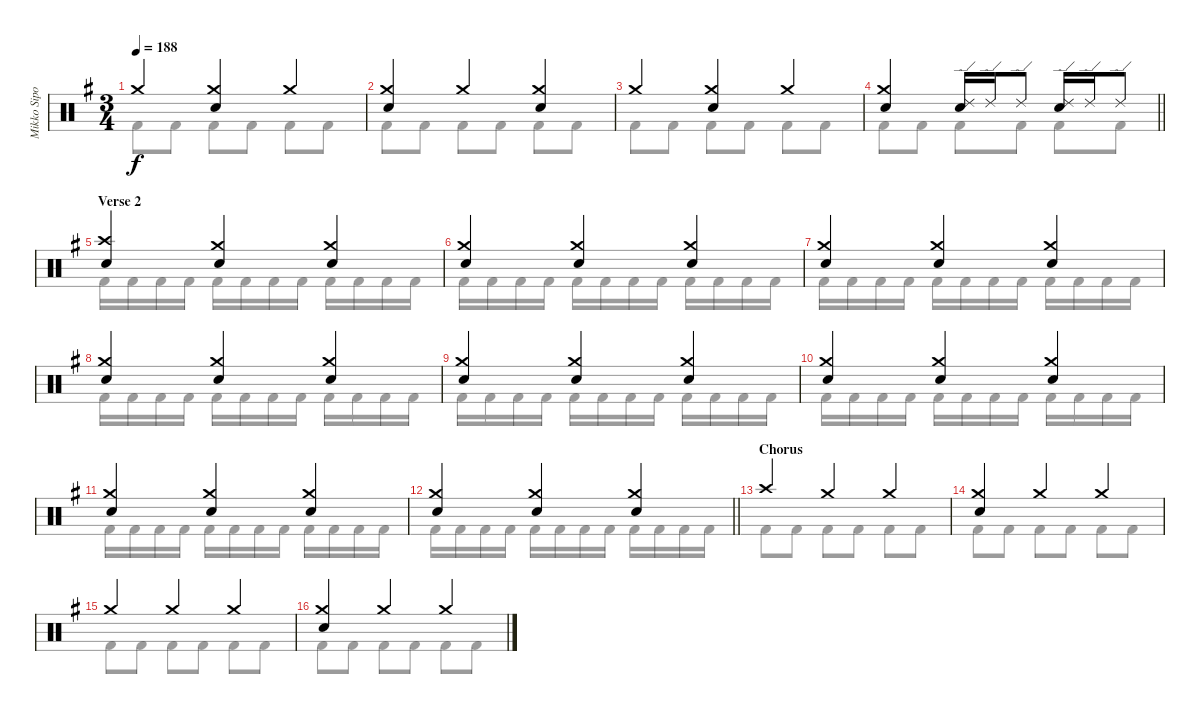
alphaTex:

\track ("Mikko Sipola (drums)" "Mikko Sipo") {instrument percussion}
\staff {score}
\articulation defaults
\voice
\ts (3 4)
\tempo 188
\clef neutral
\ks eminor "Crash medium (hit)".4{dy f}
("Crash medium (hit)" "Electric Snare (hit)").4 "Crash medium (hit)".4 |
("Crash medium (hit)" "Electric Snare (hit)").4 "Crash medium (hit)".4 ("Crash medium (hit)" "Electric Snare (hit)").4 |
"Crash medium (hit)".4 ("Crash medium (hit)" "Electric Snare (hit)").4 "Crash medium (hit)".4 |
\barLineRight lightlight
("Crash medium (hit)" "Electric Snare (hit)").4 ("Ride (edge) 2" "Electric Snare (hit)").16 "Ride (edge) 2".16 "Ride (edge) 2".8 ("Ride (edge) 2" "Electric Snare (hit)").16 "Ride (edge) 2".16 "Ride (edge) 2".8 |
\section ("" "Verse 2")
("Crash high (hit)" "Electric Snare (hit)").4 ("Crash medium (hit)" "Electric Snare (hit)").4 ("Crash medium (hit)" "Electric Snare (hit)").4 |
("Crash medium (hit)" "Electric Snare (hit)").4 ("Crash medium (hit)" "Electric Snare (hit)").4 ("Crash medium (hit)" "Electric Snare (hit)").4 |
("Crash medium (hit)" "Electric Snare (hit)").4 ("Crash medium (hit)" "Electric Snare (hit)").4 ("Crash medium (hit)" "Electric Snare (hit)").4 |
("Crash medium (hit)" "Electric Snare (hit)").4 ("Crash medium (hit)" "Electric Snare (hit)").4 ("Crash medium (hit)" "Electric Snare (hit)").4 |
("Crash medium (hit)" "Electric Snare (hit)").4 ("Crash medium (hit)" "Electric Snare (hit)").4 ("Crash medium (hit)" "Electric Snare (hit)").4 |
("Crash medium (hit)" "Electric Snare (hit)").4 ("Crash medium (hit)" "Electric Snare (hit)").4 ("Crash medium (hit)" "Electric Snare (hit)").4 |
("Crash medium (hit)" "Electric Snare (hit)").4 ("Crash medium (hit)" "Electric Snare (hit)").4 ("Crash medium (hit)" "Electric Snare (hit)").4 |
\barLineRight lightlight
("Crash medium (hit)" "Electric Snare (hit)").4 ("Crash medium (hit)" "Electric Snare (hit)").4 ("Crash medium (hit)" "Electric Snare (hit)").4 |
\section ("" "Chorus")
"Crash high (hit)".4 "Crash medium (hit)".4 "Crash medium (hit)".4 |
("Crash medium (hit)" "Electric Snare (hit)").4 "Crash medium (hit)".4 "Crash medium (hit)".4 |
"Crash medium (hit)".4 "Crash medium (hit)".4 "Crash medium (hit)".4 |
("Crash medium (hit)" "Electric Snare (hit)").4 "Crash medium (hit)".4 "Crash medium (hit)".4
\voice
\clef neutral
\ottava regular
\simile none
\ks eminor "Kick (hit) 2".8{dy f} "Kick (hit) 2".8 "Kick (hit) 2".8 "Kick (hit) 2".8 "Kick (hit) 2".8 "Kick (hit) 2".8
|
"Kick (hit) 2".8 "Kick (hit) 2".8 "Kick (hit) 2".8 "Kick (hit) 2".8 "Kick (hit) 2".8 "Kick (hit) 2".8 |
"Kick (hit) 2".8 "Kick (hit) 2".8 "Kick (hit) 2".8 "Kick (hit) 2".8 "Kick (hit) 2".8 "Kick (hit) 2".8 |
\barLineRight lightlight "Kick (hit) 2".8 "Kick (hit) 2".8 "Kick (hit) 2".8 "Kick (hit) 2".8 "Kick (hit) 2".8 "Kick (hit) 2".8
|
"Kick (hit) 2".16 "Kick (hit) 2".16 "Kick (hit) 2".16 "Kick (hit) 2".16 "Kick (hit) 2".16 "Kick (hit) 2".16 "Kick (hit) 2".16 "Kick (hit) 2".16 "Kick (hit) 2".16 "Kick (hit) 2".16 "Kick (hit) 2".16 "Kick (hit) 2".16 |
"Kick (hit) 2".16 "Kick (hit) 2".16 "Kick (hit) 2".16 "Kick (hit) 2".16 "Kick (hit) 2".16 "Kick (hit) 2".16 "Kick (hit) 2".16 "Kick (hit) 2".16 "Kick (hit) 2".16 "Kick (hit) 2".16 "Kick (hit) 2".16 "Kick (hit) 2".16 |
"Kick (hit) 2".16 "Kick (hit) 2".16 "Kick (hit) 2".16 "Kick (hit) 2".16 "Kick (hit) 2".16 "Kick (hit) 2".16 "Kick (hit) 2".16 "Kick (hit) 2".16 "Kick (hit) 2".16 "Kick (hit) 2".16 "Kick (hit) 2".16 "Kick (hit) 2".16 |
"Kick (hit) 2".16 "Kick (hit) 2".16 "Kick (hit) 2".16 "Kick (hit) 2".16 "Kick (hit) 2".16 "Kick (hit) 2".16 "Kick (hit) 2".16 "Kick (hit) 2".16 "Kick (hit) 2".16 "Kick (hit) 2".16 "Kick (hit) 2".16 "Kick (hit) 2".16 |
"Kick (hit) 2".16 "Kick (hit) 2".16 "Kick (hit) 2".16 "Kick (hit) 2".16 "Kick (hit) 2".16 "Kick (hit) 2".16 "Kick (hit) 2".16 "Kick (hit) 2".16 "Kick (hit) 2".16 "Kick (hit) 2".16 "Kick (hit) 2".16 "Kick (hit) 2".16 |
"Kick (hit) 2".16 "Kick (hit) 2".16 "Kick (hit) 2".16 "Kick (hit) 2".16 "Kick (hit) 2".16 "Kick (hit) 2".16 "Kick (hit) 2".16 "Kick (hit) 2".16 "Kick (hit) 2".16 "Kick (hit) 2".16 "Kick (hit) 2".16 "Kick (hit) 2".16 |
"Kick (hit) 2".16 "Kick (hit) 2".16 "Kick (hit) 2".16 "Kick (hit) 2".16 "Kick (hit) 2".16 "Kick (hit) 2".16 "Kick (hit) 2".16 "Kick (hit) 2".16 "Kick (hit) 2".16 "Kick (hit) 2".16 "Kick (hit) 2".16 "Kick (hit) 2".16 |
\barLineRight lightlight "Kick (hit) 2".16 "Kick (hit) 2".16 "Kick (hit) 2".16 "Kick (hit) 2".16 "Kick (hit) 2".16 "Kick (hit) 2".16 "Kick (hit) 2".16 "Kick (hit) 2".16 "Kick (hit) 2".16 "Kick (hit) 2".16 "Kick (hit) 2".16 "Kick (hit) 2".16
|
"Kick (hit) 2".8 "Kick (hit) 2".8 "Kick (hit) 2".8 "Kick (hit) 2".8 "Kick (hit) 2".8 "Kick (hit) 2".8 |
"Kick (hit) 2".8 "Kick (hit) 2".8 "Kick (hit) 2".8 "Kick (hit) 2".8 "Kick (hit) 2".8 "Kick (hit) 2".8 |
"Kick (hit) 2".8 "Kick (hit) 2".8 "Kick (hit) 2".8 "Kick (hit) 2".8 "Kick (hit) 2".8 "Kick (hit) 2".8 |
"Kick (hit) 2".8 "Kick (hit) 2".8 "Kick (hit) 2".8 "Kick (hit) 2".8 "Kick (hit) 2".8 "Kick (hit) 2".8
